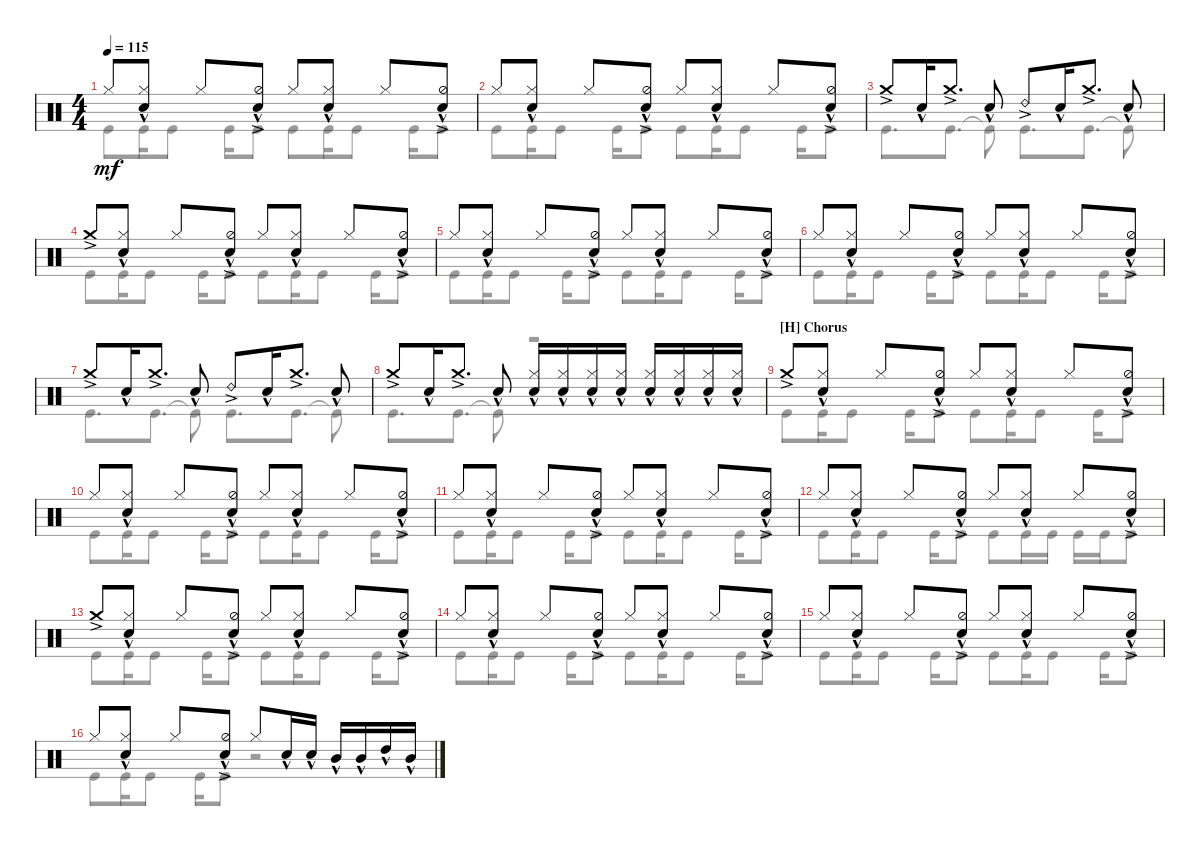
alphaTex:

\defaultSystemsLayout 4
\bracketExtendMode groupsimilarinstruments
\singleTrackTrackNamePolicy hidden
\multiTrackTrackNamePolicy hidden
\firstSystemTrackNameOrientation horizontal
\otherSystemsTrackNameOrientation horizontal
\track ("Maksim Udalov" "Drums") {instrument percussion}
\staff {score}
\articulation defaults
\voice
\ts (4 4)
\tempo 115
\clef neutral
\scale
1.02648
\ks c "Hi-Hat (closed)".8{dy mf}
("Hi-Hat (closed)" "Snare (hit) 2"{hac}).8 "Hi-Hat (closed)".8 ("Snare (hit) 2"{hac} "Hi-Hat (half)"{ac}).8 "Hi-Hat (closed)".8 ("Hi-Hat (closed)" "Snare (hit) 2"{hac}).8 "Hi-Hat (closed)".8 ("Snare (hit) 2"{hac} "Hi-Hat (half)"{ac}).8 |
\scale
0.973518 "Hi-Hat (closed)".8 ("Hi-Hat (closed)" "Snare (hit) 2"{hac}).8 "Hi-Hat (closed)".8 ("Snare (hit) 2"{hac} "Hi-Hat (half)"{ac}).8 "Hi-Hat (closed)".8 ("Hi-Hat (closed)" "Snare (hit) 2"{hac}).8 "Hi-Hat (closed)".8 ("Snare (hit) 2"{hac} "Hi-Hat (half)"{ac}).8 |
\scale
1.02648 "Crash medium (hit)"{ac}.8 "Snare (hit) 2"{hac}.16 "Crash medium (hit)"{ac}.8{d} "Snare (hit) 2"{hac}.8 "Ride (bell) 2"{ac}.8 "Snare (hit) 2"{hac}.16 "Crash medium (hit)"{ac}.8{d} "Snare (hit) 2"{hac}.8 |
\scale
0.973518 "Crash medium (hit)"{ac}.8 ("Hi-Hat (closed)" "Snare (hit) 2"{hac}).8 "Hi-Hat (closed)".8 ("Snare (hit) 2"{hac} "Hi-Hat (half)"{ac}).8 "Hi-Hat (closed)".8 ("Hi-Hat (closed)" "Snare (hit) 2"{hac}).8 "Hi-Hat (closed)".8 ("Snare (hit) 2"{hac} "Hi-Hat (half)"{ac}).8 |
\scale
1.02648 "Hi-Hat (closed)".8 ("Hi-Hat (closed)" "Snare (hit) 2"{hac}).8 "Hi-Hat (closed)".8 ("Snare (hit) 2"{hac} "Hi-Hat (half)"{ac}).8 "Hi-Hat (closed)".8 ("Hi-Hat (closed)" "Snare (hit) 2"{hac}).8 "Hi-Hat (closed)".8 ("Snare (hit) 2"{hac} "Hi-Hat (half)"{ac}).8 |
\scale
0.973518 "Hi-Hat (closed)".8 ("Hi-Hat (closed)" "Snare (hit) 2"{hac}).8 "Hi-Hat (closed)".8 ("Snare (hit) 2"{hac} "Hi-Hat (half)"{ac}).8 "Hi-Hat (closed)".8 ("Hi-Hat (closed)" "Snare (hit) 2"{hac}).8 "Hi-Hat (closed)".8 ("Snare (hit) 2"{hac} "Hi-Hat (half)"{ac}).8 |
\scale
1.02648 "Crash medium (hit)"{ac}.8 "Snare (hit) 2"{hac}.16 "Crash medium (hit)"{ac}.8{d} "Snare (hit) 2"{hac}.8 "Ride (bell) 2"{ac}.8 "Snare (hit) 2"{hac}.16 "Crash medium (hit)"{ac}.8{d} "Snare (hit) 2"{hac}.8 |
\scale
0.973518 "Crash medium (hit)"{ac}.8 "Snare (hit) 2"{hac}.16 "Crash medium (hit)"{ac}.8{d} "Snare (hit) 2"{hac}.8 ("Snare (hit) 2"{hac} "Hi-Hat (closed)").16 ("Snare (hit) 2"{hac} "Hi-Hat (closed)").16 ("Snare (hit) 2"{hac} "Hi-Hat (closed)").16 ("Snare (hit) 2"{hac} "Hi-Hat (closed)").16 ("Snare (hit) 2"{hac} "Hi-Hat (closed)").16 ("Snare (hit) 2"{hac} "Hi-Hat (closed)").16 ("Snare (hit) 2"{hac} "Hi-Hat (closed)").16 ("Snare (hit) 2"{hac} "Hi-Hat (closed)").16 |
\section ("H" "Chorus")
\scale
1.02648 "Crash medium (hit)"{ac}.8 ("Hi-Hat (closed)" "Snare (hit) 2"{hac}).8 "Hi-Hat (closed)".8 ("Snare (hit) 2"{hac} "Hi-Hat (half)"{ac}).8 "Hi-Hat (closed)".8 ("Hi-Hat (closed)" "Snare (hit) 2"{hac}).8 "Hi-Hat (closed)".8 ("Snare (hit) 2"{hac} "Hi-Hat (half)"{ac}).8 |
\scale
0.973518 "Hi-Hat (closed)".8 ("Hi-Hat (closed)" "Snare (hit) 2"{hac}).8 "Hi-Hat (closed)".8 ("Snare (hit) 2"{hac} "Hi-Hat (half)"{ac}).8 "Hi-Hat (closed)".8 ("Hi-Hat (closed)" "Snare (hit) 2"{hac}).8 "Hi-Hat (closed)".8 ("Snare (hit) 2"{hac} "Hi-Hat (half)"{ac}).8 |
\scale
1.02648 "Hi-Hat (closed)".8 ("Hi-Hat (closed)" "Snare (hit) 2"{hac}).8 "Hi-Hat (closed)".8 ("Snare (hit) 2"{hac} "Hi-Hat (half)"{ac}).8 "Hi-Hat (closed)".8 ("Hi-Hat (closed)" "Snare (hit) 2"{hac}).8 "Hi-Hat (closed)".8 ("Snare (hit) 2"{hac} "Hi-Hat (half)"{ac}).8 |
\scale
0.973518 "Hi-Hat (closed)".8 ("Hi-Hat (closed)" "Snare (hit) 2"{hac}).8 "Hi-Hat (closed)".8 ("Snare (hit) 2"{hac} "Hi-Hat (half)"{ac}).8 "Hi-Hat (closed)".8 ("Hi-Hat (closed)" "Snare (hit) 2"{hac}).8 "Hi-Hat (closed)".8 ("Snare (hit) 2"{hac} "Hi-Hat (half)"{ac}).8 |
\scale
1.02648 "Crash medium (hit)"{ac}.8 ("Hi-Hat (closed)" "Snare (hit) 2"{hac}).8 "Hi-Hat (closed)".8 ("Snare (hit) 2"{hac} "Hi-Hat (half)"{ac}).8 "Hi-Hat (closed)".8 ("Hi-Hat (closed)" "Snare (hit) 2"{hac}).8 "Hi-Hat (closed)".8 ("Snare (hit) 2"{hac} "Hi-Hat (half)"{ac}).8 |
\scale
0.973518 "Hi-Hat (closed)".8 ("Hi-Hat (closed)" "Snare (hit) 2"{hac}).8 "Hi-Hat (closed)".8 ("Snare (hit) 2"{hac} "Hi-Hat (half)"{ac}).8 "Hi-Hat (closed)".8 ("Hi-Hat (closed)" "Snare (hit) 2"{hac}).8 "Hi-Hat (closed)".8 ("Snare (hit) 2"{hac} "Hi-Hat (half)"{ac}).8 |
\scale
1.02648 "Hi-Hat (closed)".8 ("Hi-Hat (closed)" "Snare (hit) 2"{hac}).8 "Hi-Hat (closed)".8 ("Snare (hit) 2"{hac} "Hi-Hat (half)"{ac}).8 "Hi-Hat (closed)".8 ("Hi-Hat (closed)" "Snare (hit) 2"{hac}).8 "Hi-Hat (closed)".8 ("Snare (hit) 2"{hac} "Hi-Hat (half)"{ac}).8 |
\scale
0.973518 "Hi-Hat (closed)".8 ("Hi-Hat (closed)" "Snare (hit) 2"{hac}).8 "Hi-Hat (closed)".8 ("Snare (hit) 2"{hac} "Hi-Hat (half)"{ac}).8 "Hi-Hat (closed)".8 "Snare (hit) 2"{hac}.16 "Snare (hit) 2"{hac}.16 "Mid Tom (hit)"{hac}.16 "Mid Tom (hit)"{hac}.16 "High Tom (hit)"{hac}.16 "Mid Tom (hit)"{hac}.16
\voice
\clef neutral
\ottava regular
\simile none
\scale
1.02648
\ks c "Kick (hit)".8{dy mf} "Kick (hit)".16 "Kick (hit)".8 "Kick (hit)".16 "Kick (hit)".8 "Kick (hit)".8 "Kick (hit)".16 "Kick (hit)".8 "Kick (hit)".16 "Kick (hit)".8
|
\scale
0.973518 "Kick (hit)".8 "Kick (hit)".16 "Kick (hit)".8 "Kick (hit)".16 "Kick (hit)".8 "Kick (hit)".8 "Kick (hit)".16 "Kick (hit)".8 "Kick (hit)".16 "Kick (hit)".8 |
\scale
1.02648 "Kick (hit)".8{d} "Kick (hit)".8{d} "Kick (hit)"{t}.8 "Kick (hit)".8{d} "Kick (hit)".8{d} "Kick (hit)"{t}.8 |
\scale
0.973518 "Kick (hit)".8 "Kick (hit)".16 "Kick (hit)".8 "Kick (hit)".16 "Kick (hit)".8 "Kick (hit)".8 "Kick (hit)".16 "Kick (hit)".8 "Kick (hit)".16 "Kick (hit)".8 |
\scale
1.02648 "Kick (hit)".8 "Kick (hit)".16 "Kick (hit)".8 "Kick (hit)".16 "Kick (hit)".8 "Kick (hit)".8 "Kick (hit)".16 "Kick (hit)".8 "Kick (hit)".16 "Kick (hit)".8 |
\scale
0.973518 "Kick (hit)".8 "Kick (hit)".16 "Kick (hit)".8 "Kick (hit)".16 "Kick (hit)".8 "Kick (hit)".8 "Kick (hit)".16 "Kick (hit)".8 "Kick (hit)".16 "Kick (hit)".8 |
\scale
1.02648 "Kick (hit)".8{d} "Kick (hit)".8{d} "Kick (hit)"{t}.8 "Kick (hit)".8{d} "Kick (hit)".8{d} "Kick (hit)"{t}.8 |
\scale
0.973518 "Kick (hit)".8{d} "Kick (hit)".8{d} "Kick (hit)"{t}.8 r.2 |
\scale
1.02648 "Kick (hit)".8 "Kick (hit)".16 "Kick (hit)".8 "Kick (hit)".16 "Kick (hit)".8 "Kick (hit)".8 "Kick (hit)".16 "Kick (hit)".8 "Kick (hit)".16 "Kick (hit)".8 |
\scale
0.973518 "Kick (hit)".8 "Kick (hit)".16 "Kick (hit)".8 "Kick (hit)".16 "Kick (hit)".8 "Kick (hit)".8 "Kick (hit)".16 "Kick (hit)".8 "Kick (hit)".16 "Kick (hit)".8 |
\scale
1.02648 "Kick (hit)".8 "Kick (hit)".16 "Kick (hit)".8 "Kick (hit)".16 "Kick (hit)".8 "Kick (hit)".8 "Kick (hit)".16 "Kick (hit)".8 "Kick (hit)".16 "Kick (hit)".8 |
\scale
0.973518 "Kick (hit)".8 "Kick (hit)".16 "Kick (hit)".8 "Kick (hit)".16 "Kick (hit)".8 "Kick (hit)".8 "Kick (hit)".16 "Kick (hit)".16 "Kick (hit)".16 "Kick (hit)".16 "Kick (hit)".8 |
\scale
1.02648 "Kick (hit)".8 "Kick (hit)".16 "Kick (hit)".8 "Kick (hit)".16 "Kick (hit)".8 "Kick (hit)".8 "Kick (hit)".16 "Kick (hit)".8 "Kick (hit)".16 "Kick (hit)".8 |
\scale
0.973518 "Kick (hit)".8 "Kick (hit)".16 "Kick (hit)".8 "Kick (hit)".16 "Kick (hit)".8 "Kick (hit)".8 "Kick (hit)".16 "Kick (hit)".8 "Kick (hit)".16 "Kick (hit)".8 |
\scale
1.02648 "Kick (hit)".8 "Kick (hit)".16 "Kick (hit)".8 "Kick (hit)".16 "Kick (hit)".8 "Kick (hit)".8 "Kick (hit)".16 "Kick (hit)".8 "Kick (hit)".16 "Kick (hit)".8 |
\scale
0.973518 "Kick (hit)".8 "Kick (hit)".16 "Kick (hit)".8 "Kick (hit)".16 "Kick (hit)".8 r.2
